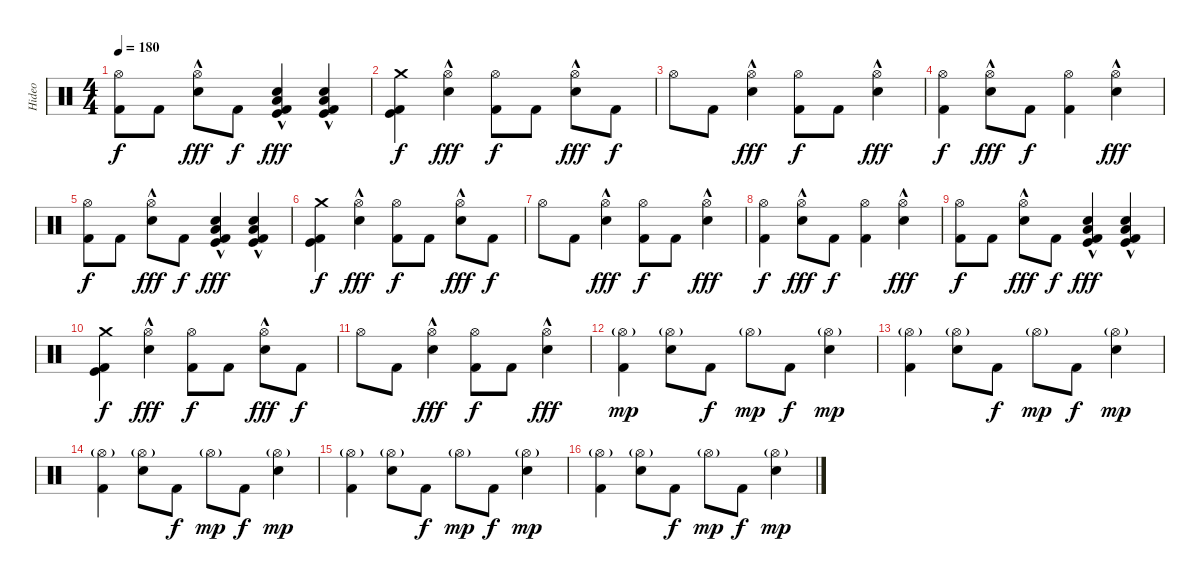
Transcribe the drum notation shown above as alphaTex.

\track ("Hideo" "Hideo") {instrument percussion}
\staff {score}
\articulation defaults
\ts (4 4)
\tempo 180
\clef neutral
\ks c
("Hi-Hat (open)" "Kick (hit) 2").8{dy f} "Kick (hit) 2".8 ("Hi-Hat (open)"{hac} "Electric Snare (hit)").8{dy fff} "Kick (hit) 2".8{dy f} ("Low Floor Tom (hit)" "Electric Snare (hit)"{hac} "Kick (hit)" "Kick (hit) 2").4{dy fff} ("Low Floor Tom (hit)" "Electric Snare (hit)"{hac} "Kick (hit) 2" "Kick (hit)").4 |
("Crash medium (hit)" "Kick (hit) 2" "Kick (hit)").4{dy f} ("Hi-Hat (open)"{hac} "Electric Snare (hit)").4{dy fff} ("Hi-Hat (open)" "Kick (hit) 2").8{dy f} "Kick (hit) 2".8 ("Hi-Hat (open)"{hac} "Electric Snare (hit)").8{dy fff} "Kick (hit) 2".8{dy f} |
"Hi-Hat (open)".8 "Kick (hit) 2".8 ("Hi-Hat (open)"{hac} "Electric Snare (hit)").4{dy fff} ("Hi-Hat (open)" "Kick (hit) 2").8{dy f} "Kick (hit) 2".8 ("Hi-Hat (open)"{hac} "Electric Snare (hit)").4{dy fff} |
("Hi-Hat (open)" "Kick (hit) 2").4{dy f} ("Hi-Hat (open)"{hac} "Electric Snare (hit)").8{dy fff} "Kick (hit) 2".8{dy f} ("Hi-Hat (open)" "Kick (hit) 2").4 ("Hi-Hat (open)"{hac} "Electric Snare (hit)").4{dy fff} |
("Hi-Hat (open)" "Kick (hit) 2").8{dy f} "Kick (hit) 2".8 ("Hi-Hat (open)"{hac} "Electric Snare (hit)").8{dy fff} "Kick (hit) 2".8{dy f} ("Low Floor Tom (hit)" "Electric Snare (hit)"{hac} "Kick (hit)" "Kick (hit) 2").4{dy fff} ("Low Floor Tom (hit)" "Electric Snare (hit)"{hac} "Kick (hit) 2" "Kick (hit)").4 |
("Crash medium (hit)" "Kick (hit) 2" "Kick (hit)").4{dy f} ("Hi-Hat (open)"{hac} "Electric Snare (hit)").4{dy fff} ("Hi-Hat (open)" "Kick (hit) 2").8{dy f} "Kick (hit) 2".8 ("Hi-Hat (open)"{hac} "Electric Snare (hit)").8{dy fff} "Kick (hit) 2".8{dy f} |
"Hi-Hat (open)".8 "Kick (hit) 2".8 ("Hi-Hat (open)"{hac} "Electric Snare (hit)").4{dy fff} ("Hi-Hat (open)" "Kick (hit) 2").8{dy f} "Kick (hit) 2".8 ("Hi-Hat (open)"{hac} "Electric Snare (hit)").4{dy fff} |
("Hi-Hat (open)" "Kick (hit) 2").4{dy f} ("Hi-Hat (open)"{hac} "Electric Snare (hit)").8{dy fff} "Kick (hit) 2".8{dy f} ("Hi-Hat (open)" "Kick (hit) 2").4 ("Hi-Hat (open)"{hac} "Electric Snare (hit)").4{dy fff} |
("Hi-Hat (open)" "Kick (hit) 2").8{dy f} "Kick (hit) 2".8 ("Hi-Hat (open)"{hac} "Electric Snare (hit)").8{dy fff} "Kick (hit) 2".8{dy f} ("Low Floor Tom (hit)" "Electric Snare (hit)"{hac} "Kick (hit)" "Kick (hit) 2").4{dy fff} ("Low Floor Tom (hit)" "Electric Snare (hit)"{hac} "Kick (hit) 2" "Kick (hit)").4 |
("Crash medium (hit)" "Kick (hit) 2" "Kick (hit)").4{dy f} ("Hi-Hat (open)"{hac} "Electric Snare (hit)").4{dy fff} ("Hi-Hat (open)" "Kick (hit) 2").8{dy f} "Kick (hit) 2".8 ("Hi-Hat (open)"{hac} "Electric Snare (hit)").8{dy fff} "Kick (hit) 2".8{dy f} |
"Hi-Hat (open)".8 "Kick (hit) 2".8 ("Hi-Hat (open)"{hac} "Electric Snare (hit)").4{dy fff} ("Hi-Hat (open)" "Kick (hit) 2").8{dy f} "Kick (hit) 2".8 ("Hi-Hat (open)"{hac} "Electric Snare (hit)").4{dy fff} |
("Hi-Hat (open)"{g} "Kick (hit) 2").4{dy mp} ("Hi-Hat (open)"{g} "Electric Snare (hit)").8 "Kick (hit) 2".8{dy f} "Hi-Hat (open)"{g}.8{dy mp} "Kick (hit) 2".8{dy f} ("Hi-Hat (open)"{g} "Electric Snare (hit)").4{dy mp} |
("Hi-Hat (open)"{g} "Kick (hit) 2").4 ("Hi-Hat (open)"{g} "Electric Snare (hit)").8 "Kick (hit) 2".8{dy f} "Hi-Hat (open)"{g}.8{dy mp} "Kick (hit) 2".8{dy f} ("Hi-Hat (open)"{g} "Electric Snare (hit)").4{dy mp} |
("Hi-Hat (open)"{g} "Kick (hit) 2").4 ("Hi-Hat (open)"{g} "Electric Snare (hit)").8 "Kick (hit) 2".8{dy f} "Hi-Hat (open)"{g}.8{dy mp} "Kick (hit) 2".8{dy f} ("Hi-Hat (open)"{g} "Electric Snare (hit)").4{dy mp} |
("Hi-Hat (open)"{g} "Kick (hit) 2").4 ("Hi-Hat (open)"{g} "Electric Snare (hit)").8 "Kick (hit) 2".8{dy f} "Hi-Hat (open)"{g}.8{dy mp} "Kick (hit) 2".8{dy f} ("Hi-Hat (open)"{g} "Electric Snare (hit)").4{dy mp} |
("Hi-Hat (open)"{g} "Kick (hit) 2").4 ("Hi-Hat (open)"{g} "Electric Snare (hit)").8 "Kick (hit) 2".8{dy f} "Hi-Hat (open)"{g}.8{dy mp} "Kick (hit) 2".8{dy f} ("Hi-Hat (open)"{g} "Electric Snare (hit)").4{dy mp}
